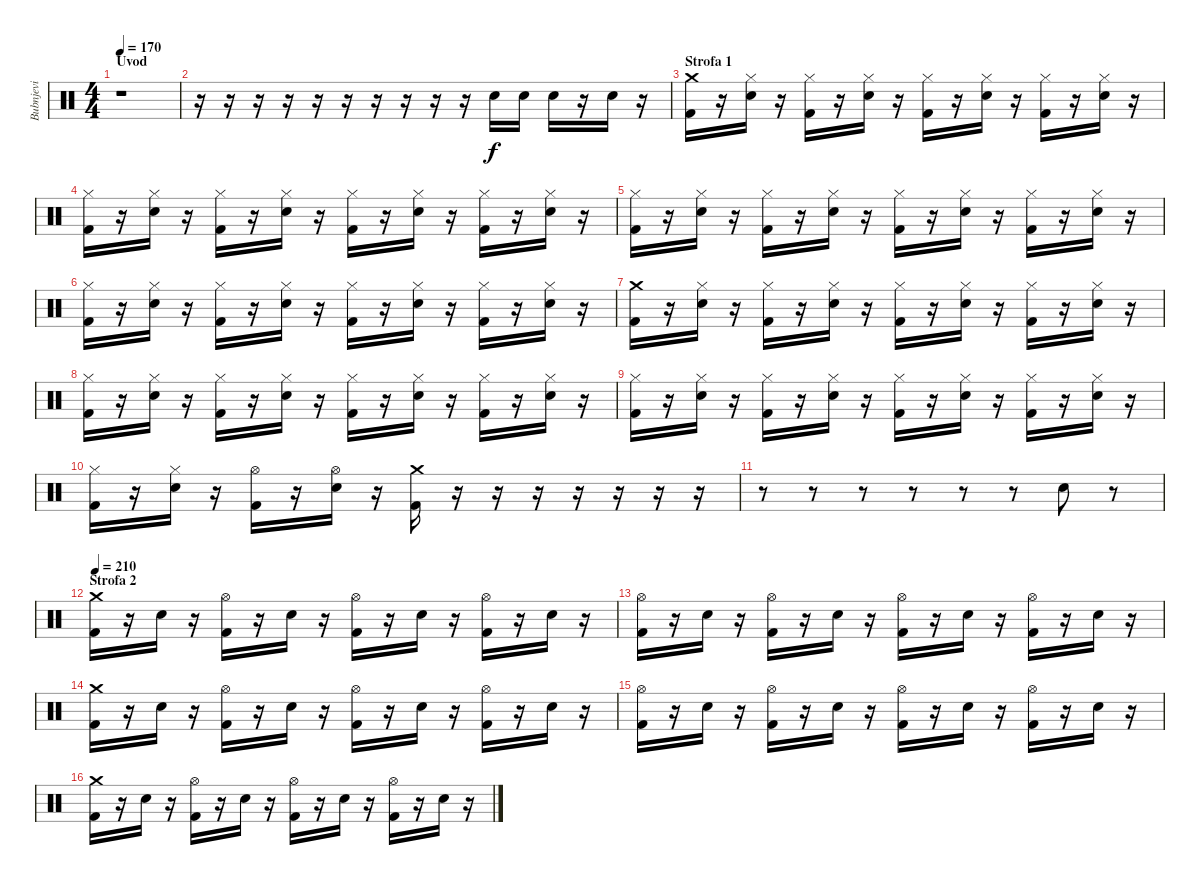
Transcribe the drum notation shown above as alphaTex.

\track ("Bubnjevi" "Bubnjevi") {instrument percussion}
\staff {score}
\articulation defaults
\ts (4 4)
\section ("" "Uvod")
\tempo 170
\clef neutral
\ks c
r.1{dy f} |
r.16 r.16 r.16 r.16 r.16 r.16 r.16 r.16 r.16 r.16 "Snare (hit) 2".16 "Snare (hit) 2".16 "Snare (hit) 2".16 r.16 "Snare (hit) 2".16 r.16 |
\section ("" "Strofa 1")
("Kick (hit) 2" "Crash medium (hit)").16 r.16 ("Hi-Hat (closed)" "Snare (hit) 2").16 r.16 ("Hi-Hat (closed)" "Kick (hit) 2").16 r.16 ("Hi-Hat (closed)" "Snare (hit) 2").16 r.16 ("Hi-Hat (closed)" "Kick (hit) 2").16 r.16 ("Hi-Hat (closed)" "Snare (hit) 2").16 r.16 ("Hi-Hat (closed)" "Kick (hit) 2").16 r.16 ("Hi-Hat (closed)" "Snare (hit) 2").16 r.16 |
("Hi-Hat (closed)" "Kick (hit) 2").16 r.16 ("Hi-Hat (closed)" "Snare (hit) 2").16 r.16 ("Hi-Hat (closed)" "Kick (hit) 2").16 r.16 ("Hi-Hat (closed)" "Snare (hit) 2").16 r.16 ("Hi-Hat (closed)" "Kick (hit) 2").16 r.16 ("Hi-Hat (closed)" "Snare (hit) 2").16 r.16 ("Hi-Hat (closed)" "Kick (hit) 2").16 r.16 ("Hi-Hat (closed)" "Snare (hit) 2").16 r.16 |
("Hi-Hat (closed)" "Kick (hit) 2").16 r.16 ("Hi-Hat (closed)" "Snare (hit) 2").16 r.16 ("Hi-Hat (closed)" "Kick (hit) 2").16 r.16 ("Hi-Hat (closed)" "Snare (hit) 2").16 r.16 ("Hi-Hat (closed)" "Kick (hit) 2").16 r.16 ("Hi-Hat (closed)" "Snare (hit) 2").16 r.16 ("Hi-Hat (closed)" "Kick (hit) 2").16 r.16 ("Hi-Hat (closed)" "Snare (hit) 2").16 r.16 |
("Hi-Hat (closed)" "Kick (hit) 2").16 r.16 ("Hi-Hat (closed)" "Snare (hit) 2").16 r.16 ("Hi-Hat (closed)" "Kick (hit) 2").16 r.16 ("Hi-Hat (closed)" "Snare (hit) 2").16 r.16 ("Hi-Hat (closed)" "Kick (hit) 2").16 r.16 ("Hi-Hat (closed)" "Snare (hit) 2").16 r.16 ("Hi-Hat (closed)" "Kick (hit) 2").16 r.16 ("Hi-Hat (closed)" "Snare (hit) 2").16 r.16 |
("Kick (hit) 2" "Crash medium (hit)").16 r.16 ("Hi-Hat (closed)" "Snare (hit) 2").16 r.16 ("Hi-Hat (closed)" "Kick (hit) 2").16 r.16 ("Hi-Hat (closed)" "Snare (hit) 2").16 r.16 ("Hi-Hat (closed)" "Kick (hit) 2").16 r.16 ("Hi-Hat (closed)" "Snare (hit) 2").16 r.16 ("Hi-Hat (closed)" "Kick (hit) 2").16 r.16 ("Hi-Hat (closed)" "Snare (hit) 2").16 r.16 |
("Hi-Hat (closed)" "Kick (hit) 2").16 r.16 ("Hi-Hat (closed)" "Snare (hit) 2").16 r.16 ("Hi-Hat (closed)" "Kick (hit) 2").16 r.16 ("Hi-Hat (closed)" "Snare (hit) 2").16 r.16 ("Hi-Hat (closed)" "Kick (hit) 2").16 r.16 ("Hi-Hat (closed)" "Snare (hit) 2").16 r.16 ("Hi-Hat (closed)" "Kick (hit) 2").16 r.16 ("Hi-Hat (closed)" "Snare (hit) 2").16 r.16 |
("Hi-Hat (closed)" "Kick (hit) 2").16 r.16 ("Hi-Hat (closed)" "Snare (hit) 2").16 r.16 ("Hi-Hat (closed)" "Kick (hit) 2").16 r.16 ("Hi-Hat (closed)" "Snare (hit) 2").16 r.16 ("Hi-Hat (closed)" "Kick (hit) 2").16 r.16 ("Hi-Hat (closed)" "Snare (hit) 2").16 r.16 ("Hi-Hat (closed)" "Kick (hit) 2").16 r.16 ("Hi-Hat (closed)" "Snare (hit) 2").16 r.16 |
("Hi-Hat (closed)" "Kick (hit) 2").16 r.16 ("Hi-Hat (closed)" "Snare (hit) 2").16 r.16 ("Hi-Hat (open)" "Kick (hit) 2").16 r.16 ("Hi-Hat (open)" "Snare (hit) 2").16 r.16 ("Kick (hit) 2" "Crash medium (hit)").16 r.16 r.16 r.16 r.16 r.16 r.16 r.16 |
r.8 r.8 r.8 r.8 r.8 r.8 "Snare (hit) 2".8 r.8 |
\section ("" "Strofa 2")
\tempo 210
("Kick (hit) 2" "Crash medium (hit)").16 r.16 "Snare (hit) 2".16 r.16 ("Hi-Hat (open)" "Kick (hit) 2").16 r.16 "Snare (hit) 2".16 r.16 ("Hi-Hat (open)" "Kick (hit) 2").16 r.16 "Snare (hit) 2".16 r.16 ("Hi-Hat (open)" "Kick (hit) 2").16 r.16 "Snare (hit) 2".16 r.16 |
("Hi-Hat (open)" "Kick (hit) 2").16 r.16 "Snare (hit) 2".16 r.16 ("Hi-Hat (open)" "Kick (hit) 2").16 r.16 "Snare (hit) 2".16 r.16 ("Hi-Hat (open)" "Kick (hit) 2").16 r.16 "Snare (hit) 2".16 r.16 ("Hi-Hat (open)" "Kick (hit) 2").16 r.16 "Snare (hit) 2".16 r.16 |
("Kick (hit) 2" "Crash medium (hit)").16 r.16 "Snare (hit) 2".16 r.16 ("Hi-Hat (open)" "Kick (hit) 2").16 r.16 "Snare (hit) 2".16 r.16 ("Hi-Hat (open)" "Kick (hit) 2").16 r.16 "Snare (hit) 2".16 r.16 ("Hi-Hat (open)" "Kick (hit) 2").16 r.16 "Snare (hit) 2".16 r.16 |
("Hi-Hat (open)" "Kick (hit) 2").16 r.16 "Snare (hit) 2".16 r.16 ("Hi-Hat (open)" "Kick (hit) 2").16 r.16 "Snare (hit) 2".16 r.16 ("Hi-Hat (open)" "Kick (hit) 2").16 r.16 "Snare (hit) 2".16 r.16 ("Hi-Hat (open)" "Kick (hit) 2").16 r.16 "Snare (hit) 2".16 r.16 |
("Kick (hit) 2" "Crash medium (hit)").16 r.16 "Snare (hit) 2".16 r.16 ("Hi-Hat (open)" "Kick (hit) 2").16 r.16 "Snare (hit) 2".16 r.16 ("Hi-Hat (open)" "Kick (hit) 2").16 r.16 "Snare (hit) 2".16 r.16 ("Hi-Hat (open)" "Kick (hit) 2").16 r.16 "Snare (hit) 2".16 r.16
